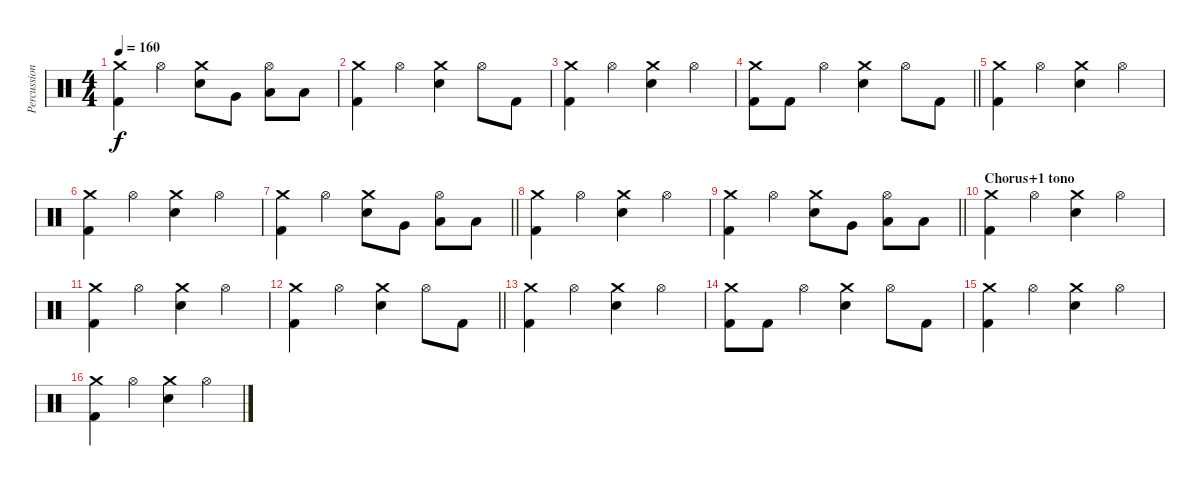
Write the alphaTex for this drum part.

\track ("Percussioni" "Percussion") {instrument percussion}
\staff {score}
\articulation defaults
\ts (4 4)
\tempo 160
\clef neutral
\ks c
("Crash medium (hit)" "Kick (hit) 2").4{dy f} "Hi-Hat (open)".4 ("Crash medium (hit)" "Electric Snare (hit)").8 "Very Low Tom (hit)".8 ("Hi-Hat (open)" "Low Floor Tom (hit)").8 "Low Floor Tom (hit)".8 |
("Crash medium (hit)" "Kick (hit) 2").4 "Hi-Hat (open)".4 ("Crash medium (hit)" "Electric Snare (hit)").4 "Hi-Hat (open)".8 "Kick (hit) 2".8 |
("Crash medium (hit)" "Kick (hit) 2").4 "Hi-Hat (open)".4 ("Crash medium (hit)" "Electric Snare (hit)").4 "Hi-Hat (open)".4 |
\barLineRight lightlight
("Crash medium (hit)" "Kick (hit) 2").8 "Kick (hit) 2".8 "Hi-Hat (open)".4 ("Crash medium (hit)" "Electric Snare (hit)").4 "Hi-Hat (open)".8 "Kick (hit) 2".8 |
("Crash medium (hit)" "Kick (hit) 2").4 "Hi-Hat (open)".4 ("Crash medium (hit)" "Electric Snare (hit)").4 "Hi-Hat (open)".4 |
("Crash medium (hit)" "Kick (hit) 2").4 "Hi-Hat (open)".4 ("Crash medium (hit)" "Electric Snare (hit)").4 "Hi-Hat (open)".4 |
\barLineRight lightlight
("Crash medium (hit)" "Kick (hit) 2").4 "Hi-Hat (open)".4 ("Crash medium (hit)" "Electric Snare (hit)").8 "Very Low Tom (hit)".8 ("Hi-Hat (open)" "Low Floor Tom (hit)").8 "Low Floor Tom (hit)".8 |
("Crash medium (hit)" "Kick (hit) 2").4 "Hi-Hat (open)".4 ("Crash medium (hit)" "Electric Snare (hit)").4 "Hi-Hat (open)".4 |
\barLineRight lightlight
("Crash medium (hit)" "Kick (hit) 2").4 "Hi-Hat (open)".4 ("Crash medium (hit)" "Electric Snare (hit)").8 "Very Low Tom (hit)".8 ("Hi-Hat (open)" "Low Floor Tom (hit)").8 "Low Floor Tom (hit)".8 |
\section ("" "Chorus+1 tono")
("Crash medium (hit)" "Kick (hit) 2").4 "Hi-Hat (open)".4 ("Crash medium (hit)" "Electric Snare (hit)").4 "Hi-Hat (open)".4 |
("Crash medium (hit)" "Kick (hit) 2").4 "Hi-Hat (open)".4 ("Crash medium (hit)" "Electric Snare (hit)").4 "Hi-Hat (open)".4 |
\barLineRight lightlight
("Crash medium (hit)" "Kick (hit) 2").4 "Hi-Hat (open)".4 ("Crash medium (hit)" "Electric Snare (hit)").4 "Hi-Hat (open)".8 "Kick (hit) 2".8 |
("Crash medium (hit)" "Kick (hit) 2").4 "Hi-Hat (open)".4 ("Crash medium (hit)" "Electric Snare (hit)").4 "Hi-Hat (open)".4 |
("Crash medium (hit)" "Kick (hit) 2").8 "Kick (hit) 2".8 "Hi-Hat (open)".4 ("Crash medium (hit)" "Electric Snare (hit)").4 "Hi-Hat (open)".8 "Kick (hit) 2".8 |
("Crash medium (hit)" "Kick (hit) 2").4 "Hi-Hat (open)".4 ("Crash medium (hit)" "Electric Snare (hit)").4 "Hi-Hat (open)".4 |
("Crash medium (hit)" "Kick (hit) 2").4 "Hi-Hat (open)".4 ("Crash medium (hit)" "Electric Snare (hit)").4 "Hi-Hat (open)".4
